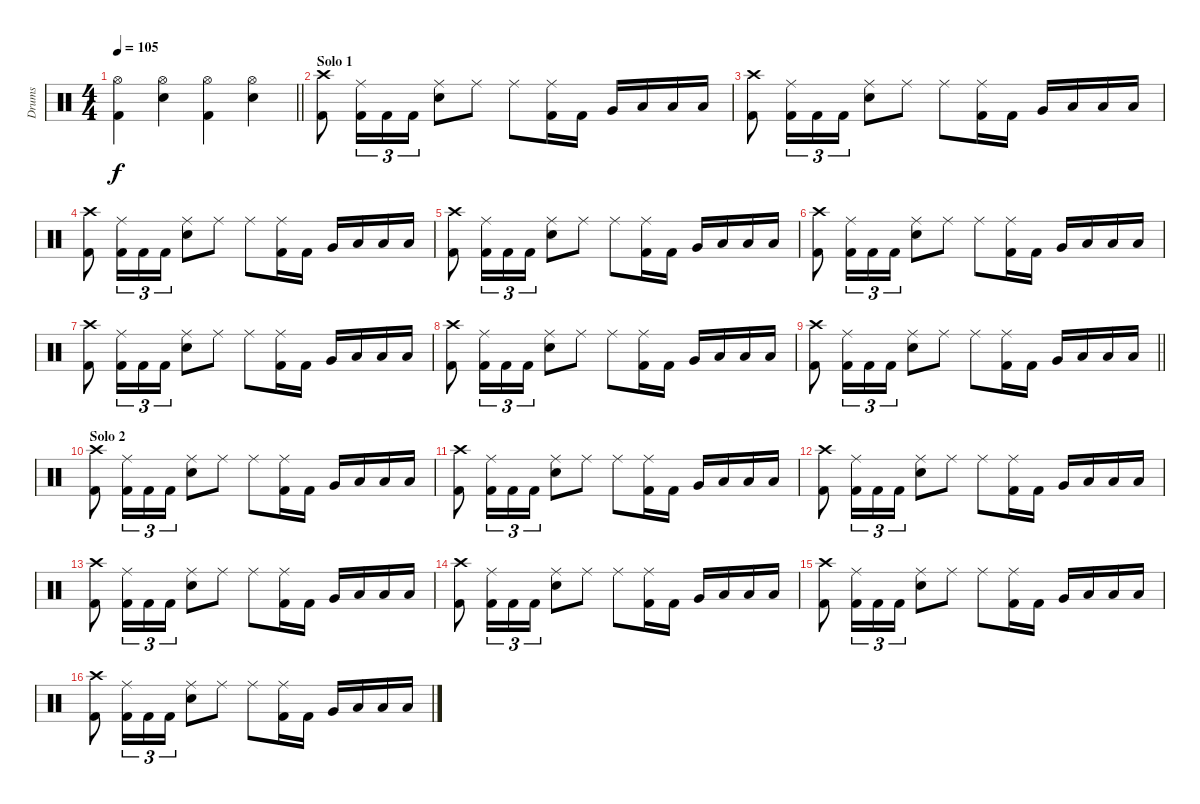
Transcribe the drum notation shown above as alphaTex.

\track ("Drums" "Drums") {instrument percussion}
\staff {score}
\articulation defaults
\ts (4 4)
\tempo 105
\clef neutral
\barLineRight lightlight
\ks c
("Hi-Hat (open)" "Kick (hit) 2").4{dy f} ("Hi-Hat (open)" "Snare (hit) 2").4 ("Hi-Hat (open)" "Kick (hit) 2").4 ("Hi-Hat (open)" "Snare (hit) 2").4 |
\section ("" "Solo 1")
("Crash high (hit)" "Kick (hit) 2").8 ("Ride (middle)" "Kick (hit) 2").16{tu (3 2)} "Kick (hit) 2".16{tu (3 2)} "Kick (hit) 2".16{tu (3 2)} ("Ride (middle)" "Snare (hit) 2").8 "Ride (middle)".8 "Ride (middle)".8 ("Ride (middle)" "Kick (hit) 2").16 "Kick (hit) 2".16 "Very Low Tom (hit)".16 "Low Tom (hit)".16 "Low Floor Tom (hit)".16 "Low Floor Tom (hit)".16 |
("Crash high (hit)" "Kick (hit) 2").8 ("Ride (middle)" "Kick (hit) 2").16{tu (3 2)} "Kick (hit) 2".16{tu (3 2)} "Kick (hit) 2".16{tu (3 2)} ("Ride (middle)" "Snare (hit) 2").8 "Ride (middle)".8 "Ride (middle)".8 ("Ride (middle)" "Kick (hit) 2").16 "Kick (hit) 2".16 "Very Low Tom (hit)".16 "Low Tom (hit)".16 "Low Floor Tom (hit)".16 "Low Floor Tom (hit)".16 |
("Crash high (hit)" "Kick (hit) 2").8 ("Ride (middle)" "Kick (hit) 2").16{tu (3 2)} "Kick (hit) 2".16{tu (3 2)} "Kick (hit) 2".16{tu (3 2)} ("Ride (middle)" "Snare (hit) 2").8 "Ride (middle)".8 "Ride (middle)".8 ("Ride (middle)" "Kick (hit) 2").16 "Kick (hit) 2".16 "Very Low Tom (hit)".16 "Low Tom (hit)".16 "Low Floor Tom (hit)".16 "Low Floor Tom (hit)".16 |
("Crash high (hit)" "Kick (hit) 2").8 ("Ride (middle)" "Kick (hit) 2").16{tu (3 2)} "Kick (hit) 2".16{tu (3 2)} "Kick (hit) 2".16{tu (3 2)} ("Ride (middle)" "Snare (hit) 2").8 "Ride (middle)".8 "Ride (middle)".8 ("Ride (middle)" "Kick (hit) 2").16 "Kick (hit) 2".16 "Very Low Tom (hit)".16 "Low Tom (hit)".16 "Low Floor Tom (hit)".16 "Low Floor Tom (hit)".16 |
("Crash high (hit)" "Kick (hit) 2").8 ("Ride (middle)" "Kick (hit) 2").16{tu (3 2)} "Kick (hit) 2".16{tu (3 2)} "Kick (hit) 2".16{tu (3 2)} ("Ride (middle)" "Snare (hit) 2").8 "Ride (middle)".8 "Ride (middle)".8 ("Ride (middle)" "Kick (hit) 2").16 "Kick (hit) 2".16 "Very Low Tom (hit)".16 "Low Tom (hit)".16 "Low Floor Tom (hit)".16 "Low Floor Tom (hit)".16 |
("Crash high (hit)" "Kick (hit) 2").8 ("Ride (middle)" "Kick (hit) 2").16{tu (3 2)} "Kick (hit) 2".16{tu (3 2)} "Kick (hit) 2".16{tu (3 2)} ("Ride (middle)" "Snare (hit) 2").8 "Ride (middle)".8 "Ride (middle)".8 ("Ride (middle)" "Kick (hit) 2").16 "Kick (hit) 2".16 "Very Low Tom (hit)".16 "Low Tom (hit)".16 "Low Floor Tom (hit)".16 "Low Floor Tom (hit)".16 |
("Crash high (hit)" "Kick (hit) 2").8 ("Ride (middle)" "Kick (hit) 2").16{tu (3 2)} "Kick (hit) 2".16{tu (3 2)} "Kick (hit) 2".16{tu (3 2)} ("Ride (middle)" "Snare (hit) 2").8 "Ride (middle)".8 "Ride (middle)".8 ("Ride (middle)" "Kick (hit) 2").16 "Kick (hit) 2".16 "Very Low Tom (hit)".16 "Low Tom (hit)".16 "Low Floor Tom (hit)".16 "Low Floor Tom (hit)".16 |
\barLineRight lightlight
("Crash high (hit)" "Kick (hit) 2").8 ("Ride (middle)" "Kick (hit) 2").16{tu (3 2)} "Kick (hit) 2".16{tu (3 2)} "Kick (hit) 2".16{tu (3 2)} ("Ride (middle)" "Snare (hit) 2").8 "Ride (middle)".8 "Ride (middle)".8 ("Ride (middle)" "Kick (hit) 2").16 "Kick (hit) 2".16 "Very Low Tom (hit)".16 "Low Tom (hit)".16 "Low Floor Tom (hit)".16 "Low Floor Tom (hit)".16 |
\section ("" "Solo 2")
("Crash high (hit)" "Kick (hit) 2").8 ("Ride (middle)" "Kick (hit) 2").16{tu (3 2)} "Kick (hit) 2".16{tu (3 2)} "Kick (hit) 2".16{tu (3 2)} ("Ride (middle)" "Snare (hit) 2").8 "Ride (middle)".8 "Ride (middle)".8 ("Ride (middle)" "Kick (hit) 2").16 "Kick (hit) 2".16 "Very Low Tom (hit)".16 "Low Tom (hit)".16 "Low Floor Tom (hit)".16 "Low Floor Tom (hit)".16 |
("Crash high (hit)" "Kick (hit) 2").8 ("Ride (middle)" "Kick (hit) 2").16{tu (3 2)} "Kick (hit) 2".16{tu (3 2)} "Kick (hit) 2".16{tu (3 2)} ("Ride (middle)" "Snare (hit) 2").8 "Ride (middle)".8 "Ride (middle)".8 ("Ride (middle)" "Kick (hit) 2").16 "Kick (hit) 2".16 "Very Low Tom (hit)".16 "Low Tom (hit)".16 "Low Floor Tom (hit)".16 "Low Floor Tom (hit)".16 |
("Crash high (hit)" "Kick (hit) 2").8 ("Ride (middle)" "Kick (hit) 2").16{tu (3 2)} "Kick (hit) 2".16{tu (3 2)} "Kick (hit) 2".16{tu (3 2)} ("Ride (middle)" "Snare (hit) 2").8 "Ride (middle)".8 "Ride (middle)".8 ("Ride (middle)" "Kick (hit) 2").16 "Kick (hit) 2".16 "Very Low Tom (hit)".16 "Low Tom (hit)".16 "Low Floor Tom (hit)".16 "Low Floor Tom (hit)".16 |
("Crash high (hit)" "Kick (hit) 2").8 ("Ride (middle)" "Kick (hit) 2").16{tu (3 2)} "Kick (hit) 2".16{tu (3 2)} "Kick (hit) 2".16{tu (3 2)} ("Ride (middle)" "Snare (hit) 2").8 "Ride (middle)".8 "Ride (middle)".8 ("Ride (middle)" "Kick (hit) 2").16 "Kick (hit) 2".16 "Very Low Tom (hit)".16 "Low Tom (hit)".16 "Low Floor Tom (hit)".16 "Low Floor Tom (hit)".16 |
("Crash high (hit)" "Kick (hit) 2").8 ("Ride (middle)" "Kick (hit) 2").16{tu (3 2)} "Kick (hit) 2".16{tu (3 2)} "Kick (hit) 2".16{tu (3 2)} ("Ride (middle)" "Snare (hit) 2").8 "Ride (middle)".8 "Ride (middle)".8 ("Ride (middle)" "Kick (hit) 2").16 "Kick (hit) 2".16 "Very Low Tom (hit)".16 "Low Tom (hit)".16 "Low Floor Tom (hit)".16 "Low Floor Tom (hit)".16 |
("Crash high (hit)" "Kick (hit) 2").8 ("Ride (middle)" "Kick (hit) 2").16{tu (3 2)} "Kick (hit) 2".16{tu (3 2)} "Kick (hit) 2".16{tu (3 2)} ("Ride (middle)" "Snare (hit) 2").8 "Ride (middle)".8 "Ride (middle)".8 ("Ride (middle)" "Kick (hit) 2").16 "Kick (hit) 2".16 "Very Low Tom (hit)".16 "Low Tom (hit)".16 "Low Floor Tom (hit)".16 "Low Floor Tom (hit)".16 |
("Crash high (hit)" "Kick (hit) 2").8 ("Ride (middle)" "Kick (hit) 2").16{tu (3 2)} "Kick (hit) 2".16{tu (3 2)} "Kick (hit) 2".16{tu (3 2)} ("Ride (middle)" "Snare (hit) 2").8 "Ride (middle)".8 "Ride (middle)".8 ("Ride (middle)" "Kick (hit) 2").16 "Kick (hit) 2".16 "Very Low Tom (hit)".16 "Low Tom (hit)".16 "Low Floor Tom (hit)".16 "Low Floor Tom (hit)".16
